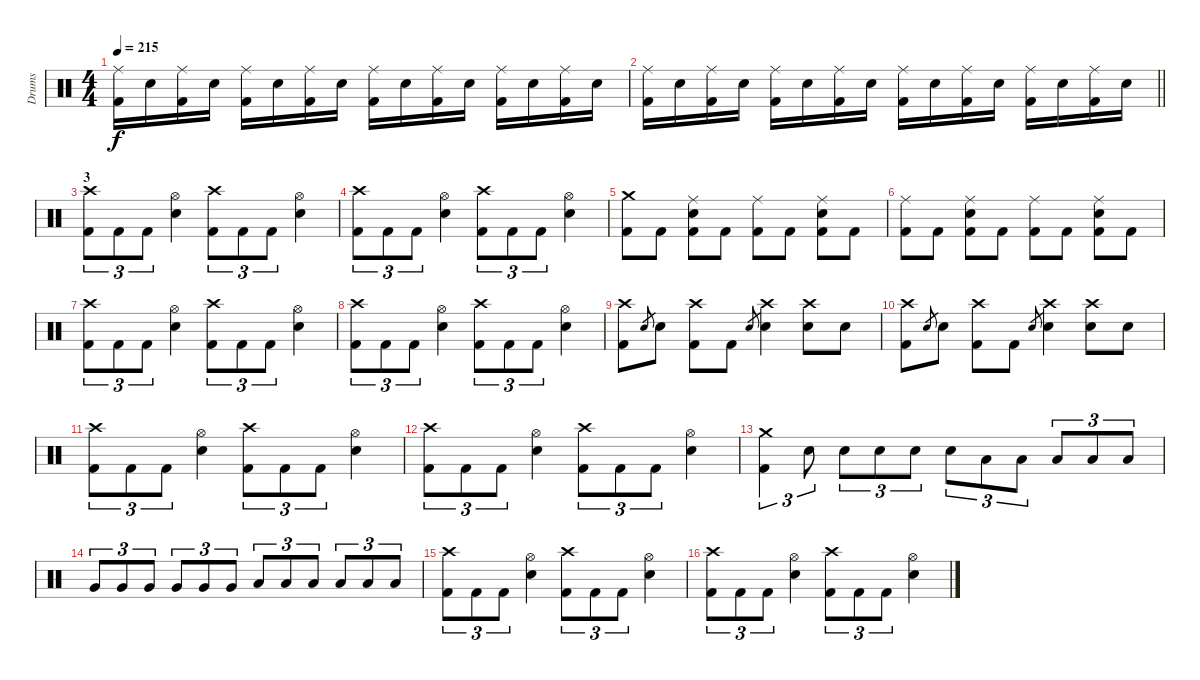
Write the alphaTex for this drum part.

\track ("Drums" "Drums") {instrument percussion}
\staff {score}
\articulation defaults
\ts (4 4)
\tempo 215
\clef neutral
\ks c
("Ride (middle)" "Kick (hit) 2").16{dy f} "Electric Snare (hit)".16 ("Ride (middle)" "Kick (hit) 2").16 "Electric Snare (hit)".16 ("Ride (middle)" "Kick (hit) 2").16 "Electric Snare (hit)".16 ("Ride (middle)" "Kick (hit) 2").16 "Electric Snare (hit)".16 ("Ride (middle)" "Kick (hit) 2").16 "Electric Snare (hit)".16 ("Ride (middle)" "Kick (hit) 2").16 "Electric Snare (hit)".16 ("Ride (middle)" "Kick (hit) 2").16 "Electric Snare (hit)".16 ("Ride (middle)" "Kick (hit) 2").16 "Electric Snare (hit)".16 |
\barLineRight lightlight
("Ride (middle)" "Kick (hit) 2").16 "Electric Snare (hit)".16 ("Ride (middle)" "Kick (hit) 2").16 "Electric Snare (hit)".16 ("Ride (middle)" "Kick (hit) 2").16 "Electric Snare (hit)".16 ("Ride (middle)" "Kick (hit) 2").16 "Electric Snare (hit)".16 ("Ride (middle)" "Kick (hit) 2").16 "Electric Snare (hit)".16 ("Ride (middle)" "Kick (hit) 2").16 "Electric Snare (hit)".16 ("Ride (middle)" "Kick (hit) 2").16 "Electric Snare (hit)".16 ("Ride (middle)" "Kick (hit) 2").16 "Electric Snare (hit)".16 |
\section ("" "3")
("Crash high (hit)" "Kick (hit) 2").8{tu (3 2)} "Kick (hit) 2".8{tu (3 2)} "Kick (hit) 2".8{tu (3 2)} ("Hi-Hat (open)" "Electric Snare (hit)").4 ("Crash high (hit)" "Kick (hit) 2").8{tu (3 2)} "Kick (hit) 2".8{tu (3 2)} "Kick (hit) 2".8{tu (3 2)} ("Hi-Hat (open)" "Electric Snare (hit)").4 |
("Crash high (hit)" "Kick (hit) 2").8{tu (3 2)} "Kick (hit) 2".8{tu (3 2)} "Kick (hit) 2".8{tu (3 2)} ("Hi-Hat (open)" "Electric Snare (hit)").4 ("Crash high (hit)" "Kick (hit) 2").8{tu (3 2)} "Kick (hit) 2".8{tu (3 2)} "Kick (hit) 2".8{tu (3 2)} ("Hi-Hat (open)" "Electric Snare (hit)").4 |
("Crash medium (hit)" "Kick (hit) 2").8 "Kick (hit) 2".8 ("Ride (middle)" "Electric Snare (hit)" "Kick (hit) 2").8 "Kick (hit) 2".8 ("Ride (middle)" "Kick (hit) 2").8 "Kick (hit) 2".8 ("Ride (middle)" "Electric Snare (hit)" "Kick (hit) 2").8 "Kick (hit) 2".8 |
("Ride (middle)" "Kick (hit) 2").8 "Kick (hit) 2".8 ("Ride (middle)" "Electric Snare (hit)" "Kick (hit) 2").8 "Kick (hit) 2".8 ("Ride (middle)" "Kick (hit) 2").8 "Kick (hit) 2".8 ("Ride (middle)" "Electric Snare (hit)" "Kick (hit) 2").8 "Kick (hit) 2".8 |
("Crash high (hit)" "Kick (hit) 2").8{tu (3 2)} "Kick (hit) 2".8{tu (3 2)} "Kick (hit) 2".8{tu (3 2)} ("Hi-Hat (open)" "Electric Snare (hit)").4 ("Crash high (hit)" "Kick (hit) 2").8{tu (3 2)} "Kick (hit) 2".8{tu (3 2)} "Kick (hit) 2".8{tu (3 2)} ("Hi-Hat (open)" "Electric Snare (hit)").4 |
("Crash high (hit)" "Kick (hit) 2").8{tu (3 2)} "Kick (hit) 2".8{tu (3 2)} "Kick (hit) 2".8{tu (3 2)} ("Hi-Hat (open)" "Electric Snare (hit)").4 ("Crash high (hit)" "Kick (hit) 2").8{tu (3 2)} "Kick (hit) 2".8{tu (3 2)} "Kick (hit) 2".8{tu (3 2)} ("Hi-Hat (open)" "Electric Snare (hit)").4 |
("Crash high (hit)" "Kick (hit) 2").8 "Electric Snare (hit)".8{gr} "Electric Snare (hit)".8 ("Crash high (hit)" "Kick (hit) 2").8 "Kick (hit) 2".8 "Electric Snare (hit)".8{gr} ("Crash high (hit)" "Electric Snare (hit)").4 ("Crash high (hit)" "Electric Snare (hit)").8 "Electric Snare (hit)".8 |
("Crash high (hit)" "Kick (hit) 2").8 "Electric Snare (hit)".8{gr} "Electric Snare (hit)".8 ("Crash high (hit)" "Kick (hit) 2").8 "Kick (hit) 2".8 "Electric Snare (hit)".8{gr} ("Crash high (hit)" "Electric Snare (hit)").4 ("Crash high (hit)" "Electric Snare (hit)").8 "Electric Snare (hit)".8 |
("Crash high (hit)" "Kick (hit) 2").8{tu (3 2)} "Kick (hit) 2".8{tu (3 2)} "Kick (hit) 2".8{tu (3 2)} ("Hi-Hat (open)" "Electric Snare (hit)").4 ("Crash high (hit)" "Kick (hit) 2").8{tu (3 2)} "Kick (hit) 2".8{tu (3 2)} "Kick (hit) 2".8{tu (3 2)} ("Hi-Hat (open)" "Electric Snare (hit)").4 |
("Crash high (hit)" "Kick (hit) 2").8{tu (3 2)} "Kick (hit) 2".8{tu (3 2)} "Kick (hit) 2".8{tu (3 2)} ("Hi-Hat (open)" "Electric Snare (hit)").4 ("Crash high (hit)" "Kick (hit) 2").8{tu (3 2)} "Kick (hit) 2".8{tu (3 2)} "Kick (hit) 2".8{tu (3 2)} ("Hi-Hat (open)" "Electric Snare (hit)").4 |
("Crash medium (hit)" "Kick (hit) 2").4{tu (3 2)} "Electric Snare (hit)".8{tu (3 2)} "Electric Snare (hit)".8{tu (3 2)} "Electric Snare (hit)".8{tu (3 2)} "Electric Snare (hit)".8{tu (3 2)} "Electric Snare (hit)".8{tu (3 2)} "Low Tom (hit)".8{tu (3 2)} "Low Tom (hit)".8{tu (3 2)} "Low Tom (hit)".8{tu (3 2)} "Low Tom (hit)".8{tu (3 2)} "Low Tom (hit)".8{tu (3 2)} |
"Very Low Tom (hit)".8{tu (3 2)} "Very Low Tom (hit)".8{tu (3 2)} "Very Low Tom (hit)".8{tu (3 2)} "Very Low Tom (hit)".8{tu (3 2)} "Very Low Tom (hit)".8{tu (3 2)} "Very Low Tom (hit)".8{tu (3 2)} "Low Floor Tom (hit)".8{tu (3 2)} "Low Floor Tom (hit)".8{tu (3 2)} "Low Floor Tom (hit)".8{tu (3 2)} "Low Floor Tom (hit)".8{tu (3 2)} "Low Floor Tom (hit)".8{tu (3 2)} "Low Floor Tom (hit)".8{tu (3 2)} |
("Crash high (hit)" "Kick (hit) 2").8{tu (3 2)} "Kick (hit) 2".8{tu (3 2)} "Kick (hit) 2".8{tu (3 2)} ("Hi-Hat (open)" "Electric Snare (hit)").4 ("Crash high (hit)" "Kick (hit) 2").8{tu (3 2)} "Kick (hit) 2".8{tu (3 2)} "Kick (hit) 2".8{tu (3 2)} ("Hi-Hat (open)" "Electric Snare (hit)").4 |
("Crash high (hit)" "Kick (hit) 2").8{tu (3 2)} "Kick (hit) 2".8{tu (3 2)} "Kick (hit) 2".8{tu (3 2)} ("Hi-Hat (open)" "Electric Snare (hit)").4 ("Crash high (hit)" "Kick (hit) 2").8{tu (3 2)} "Kick (hit) 2".8{tu (3 2)} "Kick (hit) 2".8{tu (3 2)} ("Hi-Hat (open)" "Electric Snare (hit)").4
